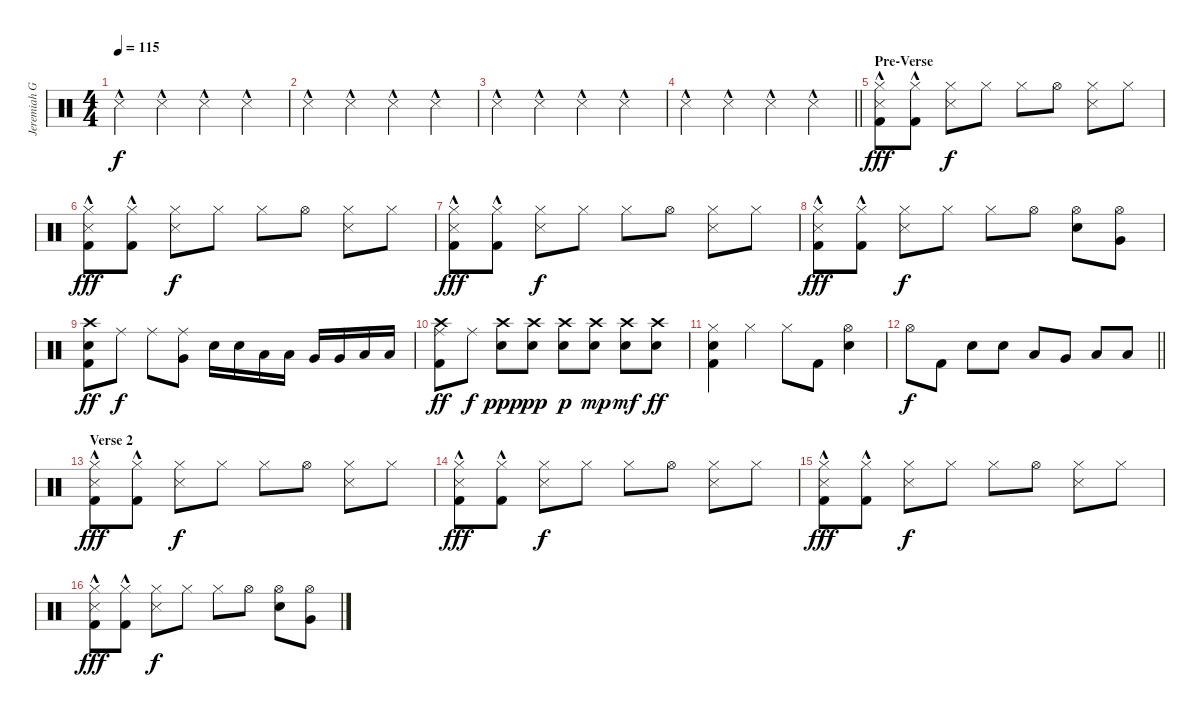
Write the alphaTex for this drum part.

\track ("Jeremiah Green" "Jeremiah G") {instrument percussion}
\staff {score}
\articulation defaults
\ts (4 4)
\tempo 115
\clef neutral
\ks c "Snare (side stick) 3"{hac}.4{dy f} "Snare (side stick) 3"{hac}.4 "Snare (side stick) 3"{hac}.4 "Snare (side stick) 3"{hac}.4
|
"Snare (side stick) 3"{hac}.4 "Snare (side stick) 3"{hac}.4 "Snare (side stick) 3"{hac}.4 "Snare (side stick) 3"{hac}.4 |
"Snare (side stick) 3"{hac}.4 "Snare (side stick) 3"{hac}.4 "Snare (side stick) 3"{hac}.4 "Snare (side stick) 3"{hac}.4 |
\barLineRight lightlight "Snare (side stick) 3"{hac}.4 "Snare (side stick) 3"{hac}.4 "Snare (side stick) 3"{hac}.4 "Snare (side stick) 3"{hac}.4
|
\section ("" "Pre-Verse")
("Hi-Hat (closed)" "Snare (side stick) 3" "Kick (hit) 2"{hac}).8{dy fff} ("Hi-Hat (closed)" "Kick (hit) 2"{hac}).8 ("Hi-Hat (closed)" "Snare (side stick) 3").8{dy f} "Hi-Hat (closed)".8 "Hi-Hat (closed)".8 "Hi-Hat (open)".8 ("Hi-Hat (closed)" "Snare (side stick) 3").8 "Hi-Hat (closed)".8 |
("Hi-Hat (closed)" "Snare (side stick) 3" "Kick (hit) 2"{hac}).8{dy fff} ("Hi-Hat (closed)" "Kick (hit) 2"{hac}).8 ("Hi-Hat (closed)" "Snare (side stick) 3").8{dy f} "Hi-Hat (closed)".8 "Hi-Hat (closed)".8 "Hi-Hat (open)".8 ("Hi-Hat (closed)" "Snare (side stick) 3").8 "Hi-Hat (closed)".8 |
("Hi-Hat (closed)" "Snare (side stick) 3" "Kick (hit) 2"{hac}).8{dy fff} ("Hi-Hat (closed)" "Kick (hit) 2"{hac}).8 ("Hi-Hat (closed)" "Snare (side stick) 3").8{dy f} "Hi-Hat (closed)".8 "Hi-Hat (closed)".8 "Hi-Hat (open)".8 ("Hi-Hat (closed)" "Snare (side stick) 3").8 "Hi-Hat (closed)".8 |
("Hi-Hat (closed)" "Snare (side stick) 3" "Kick (hit) 2"{hac}).8{dy fff} ("Hi-Hat (closed)" "Kick (hit) 2"{hac}).8 ("Hi-Hat (closed)" "Snare (side stick) 3").8{dy f} "Hi-Hat (closed)".8 "Hi-Hat (closed)".8 "Hi-Hat (open)".8 ("Hi-Hat (open)" "Electric Snare (hit)").8 ("Hi-Hat (open)" "Very Low Tom (hit)").8 |
("Crash high (hit)" "Electric Snare (hit)" "Kick (hit) 2").8{dy ff} "Ride (middle)".8{dy f} "Ride (middle)".8 ("Ride (middle)" "Very Low Tom (hit)").8 "Electric Snare (hit)".16 "Electric Snare (hit)".16 "Low Tom (hit)".16 "Low Tom (hit)".16 "Very Low Tom (hit)".16 "Very Low Tom (hit)".16 "Low Floor Tom (hit)".16 "Low Floor Tom (hit)".16 |
("Crash high (hit)" "Ride (middle)" "Kick (hit) 2").8{dy ff} "Ride (middle)".8{dy f} ("Crash high (hit)" "Electric Snare (hit)").8{dy ppp} ("Crash high (hit)" "Electric Snare (hit)").8{dy pp} ("Crash high (hit)" "Electric Snare (hit)").8{dy p} ("Crash high (hit)" "Electric Snare (hit)").8{dy mp} ("Crash high (hit)" "Electric Snare (hit)").8{dy mf} ("Crash high (hit)" "Electric Snare (hit)").8{dy ff} |
("Hi-Hat (closed)" "Electric Snare (hit)" "Kick (hit) 2").4 "Hi-Hat (closed)".4 "Hi-Hat (closed)".8 "Kick (hit) 2".8 ("Hi-Hat (open)" "Electric Snare (hit)").4 |
\barLineRight lightlight "Hi-Hat (open)".8{dy f} "Kick (hit) 2".8 "Electric Snare (hit)".8 "Electric Snare (hit)".8 "Low Tom (hit)".8 "Very Low Tom (hit)".8 "Low Floor Tom (hit)".8 "Low Floor Tom (hit)".8
|
\section ("" "Verse 2")
("Hi-Hat (closed)" "Snare (side stick) 3" "Kick (hit) 2"{hac}).8{dy fff} ("Hi-Hat (closed)" "Kick (hit) 2"{hac}).8 ("Hi-Hat (closed)" "Snare (side stick) 3").8{dy f} "Hi-Hat (closed)".8 "Hi-Hat (closed)".8 "Hi-Hat (open)".8 ("Hi-Hat (closed)" "Snare (side stick) 3").8 "Hi-Hat (closed)".8 |
("Hi-Hat (closed)" "Snare (side stick) 3" "Kick (hit) 2"{hac}).8{dy fff} ("Hi-Hat (closed)" "Kick (hit) 2"{hac}).8 ("Hi-Hat (closed)" "Snare (side stick) 3").8{dy f} "Hi-Hat (closed)".8 "Hi-Hat (closed)".8 "Hi-Hat (open)".8 ("Hi-Hat (closed)" "Snare (side stick) 3").8 "Hi-Hat (closed)".8 |
("Hi-Hat (closed)" "Snare (side stick) 3" "Kick (hit) 2"{hac}).8{dy fff} ("Hi-Hat (closed)" "Kick (hit) 2"{hac}).8 ("Hi-Hat (closed)" "Snare (side stick) 3").8{dy f} "Hi-Hat (closed)".8 "Hi-Hat (closed)".8 "Hi-Hat (open)".8 ("Hi-Hat (closed)" "Snare (side stick) 3").8 "Hi-Hat (closed)".8 |
("Hi-Hat (closed)" "Snare (side stick) 3" "Kick (hit) 2"{hac}).8{dy fff} ("Hi-Hat (closed)" "Kick (hit) 2"{hac}).8 ("Hi-Hat (closed)" "Snare (side stick) 3").8{dy f} "Hi-Hat (closed)".8 "Hi-Hat (closed)".8 "Hi-Hat (open)".8 ("Hi-Hat (open)" "Electric Snare (hit)").8 ("Hi-Hat (open)" "Very Low Tom (hit)").8
